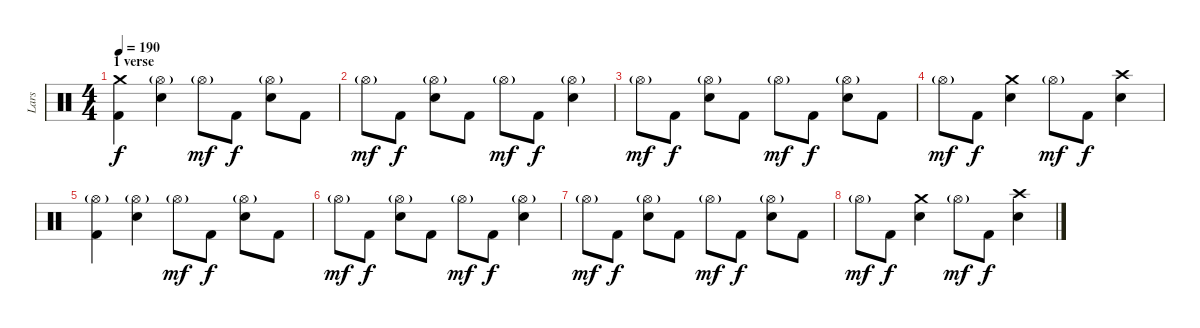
\track ("Lars" "Lars") {instrument percussion}
\staff {score}
\articulation defaults
\ts (4 4)
\section ("" "1 verse")
\tempo 190
\clef neutral
\ks c
("Crash medium (hit)" "Kick (hit) 2").4{dy f} ("Hi-Hat (open)"{g} "Snare (hit) 2").4 "Hi-Hat (open)"{g}.8{dy mf} "Kick (hit) 2".8{dy f} ("Hi-Hat (open)"{g} "Snare (hit) 2").8 "Kick (hit) 2".8 |
"Hi-Hat (open)"{g}.8{dy mf} "Kick (hit) 2".8{dy f} ("Hi-Hat (open)"{g} "Snare (hit) 2").8 "Kick (hit) 2".8 "Hi-Hat (open)"{g}.8{dy mf} "Kick (hit) 2".8{dy f} ("Hi-Hat (open)"{g} "Snare (hit) 2").4 |
"Hi-Hat (open)"{g}.8{dy mf} "Kick (hit) 2".8{dy f} ("Hi-Hat (open)"{g} "Snare (hit) 2").8 "Kick (hit) 2".8 "Hi-Hat (open)"{g}.8{dy mf} "Kick (hit) 2".8{dy f} ("Hi-Hat (open)"{g} "Snare (hit) 2").8 "Kick (hit) 2".8 |
"Hi-Hat (open)"{g}.8{dy mf} "Kick (hit) 2".8{dy f} ("Crash medium (hit)" "Snare (hit) 2").4 "Hi-Hat (open)"{g}.8{dy mf} "Kick (hit) 2".8{dy f} ("Crash high (hit)" "Snare (hit) 2").4 |
("Hi-Hat (open)"{g} "Kick (hit) 2").4 ("Hi-Hat (open)"{g} "Snare (hit) 2").4 "Hi-Hat (open)"{g}.8{dy mf} "Kick (hit) 2".8{dy f} ("Hi-Hat (open)"{g} "Snare (hit) 2").8 "Kick (hit) 2".8 |
"Hi-Hat (open)"{g}.8{dy mf} "Kick (hit) 2".8{dy f} ("Hi-Hat (open)"{g} "Snare (hit) 2").8 "Kick (hit) 2".8 "Hi-Hat (open)"{g}.8{dy mf} "Kick (hit) 2".8{dy f} ("Hi-Hat (open)"{g} "Snare (hit) 2").4 |
"Hi-Hat (open)"{g}.8{dy mf} "Kick (hit) 2".8{dy f} ("Hi-Hat (open)"{g} "Snare (hit) 2").8 "Kick (hit) 2".8 "Hi-Hat (open)"{g}.8{dy mf} "Kick (hit) 2".8{dy f} ("Hi-Hat (open)"{g} "Snare (hit) 2").8 "Kick (hit) 2".8 |
"Hi-Hat (open)"{g}.8{dy mf} "Kick (hit) 2".8{dy f} ("Crash medium (hit)" "Snare (hit) 2").4 "Hi-Hat (open)"{g}.8{dy mf} "Kick (hit) 2".8{dy f} ("Crash high (hit)" "Snare (hit) 2").4
